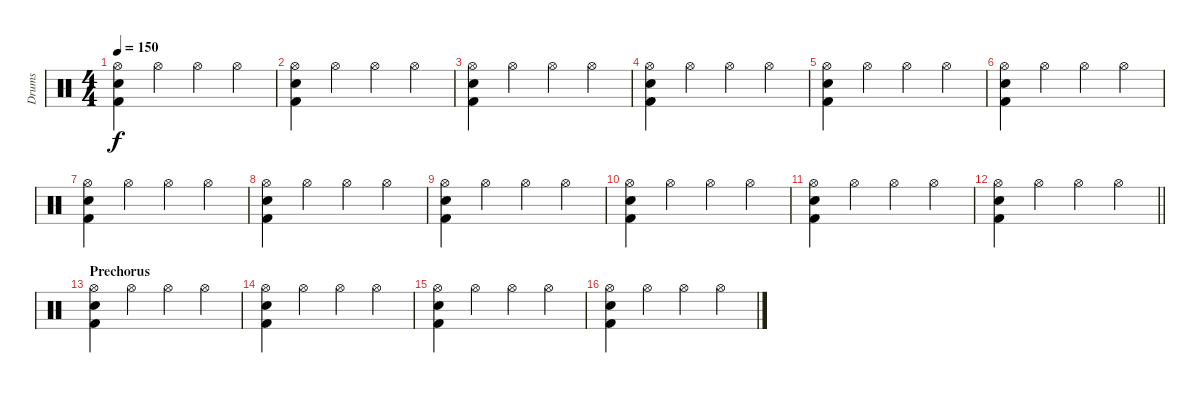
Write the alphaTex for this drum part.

\track ("Drums" "Drums") {instrument percussion}
\staff {score}
\articulation defaults
\ts (4 4)
\tempo 150
\clef neutral
\ks c
("Hi-Hat (open)" "Electric Snare (hit)" "Kick (hit) 2").4{dy f} "Hi-Hat (open)".4 "Hi-Hat (open)".4 "Hi-Hat (open)".4 |
("Hi-Hat (open)" "Electric Snare (hit)" "Kick (hit) 2").4 "Hi-Hat (open)".4 "Hi-Hat (open)".4 "Hi-Hat (open)".4 |
("Hi-Hat (open)" "Electric Snare (hit)" "Kick (hit) 2").4 "Hi-Hat (open)".4 "Hi-Hat (open)".4 "Hi-Hat (open)".4 |
("Hi-Hat (open)" "Electric Snare (hit)" "Kick (hit) 2").4 "Hi-Hat (open)".4 "Hi-Hat (open)".4 "Hi-Hat (open)".4 |
("Hi-Hat (open)" "Electric Snare (hit)" "Kick (hit) 2").4 "Hi-Hat (open)".4 "Hi-Hat (open)".4 "Hi-Hat (open)".4 |
("Hi-Hat (open)" "Electric Snare (hit)" "Kick (hit) 2").4 "Hi-Hat (open)".4 "Hi-Hat (open)".4 "Hi-Hat (open)".4 |
("Hi-Hat (open)" "Electric Snare (hit)" "Kick (hit) 2").4 "Hi-Hat (open)".4 "Hi-Hat (open)".4 "Hi-Hat (open)".4 |
("Hi-Hat (open)" "Electric Snare (hit)" "Kick (hit) 2").4 "Hi-Hat (open)".4 "Hi-Hat (open)".4 "Hi-Hat (open)".4 |
("Hi-Hat (open)" "Electric Snare (hit)" "Kick (hit) 2").4 "Hi-Hat (open)".4 "Hi-Hat (open)".4 "Hi-Hat (open)".4 |
("Hi-Hat (open)" "Electric Snare (hit)" "Kick (hit) 2").4 "Hi-Hat (open)".4 "Hi-Hat (open)".4 "Hi-Hat (open)".4 |
("Hi-Hat (open)" "Electric Snare (hit)" "Kick (hit) 2").4 "Hi-Hat (open)".4 "Hi-Hat (open)".4 "Hi-Hat (open)".4 |
\barLineRight lightlight
("Hi-Hat (open)" "Electric Snare (hit)" "Kick (hit) 2").4 "Hi-Hat (open)".4 "Hi-Hat (open)".4 "Hi-Hat (open)".4 |
\section ("" "Prechorus")
("Hi-Hat (open)" "Electric Snare (hit)" "Kick (hit) 2").4 "Hi-Hat (open)".4 "Hi-Hat (open)".4 "Hi-Hat (open)".4 |
("Hi-Hat (open)" "Electric Snare (hit)" "Kick (hit) 2").4 "Hi-Hat (open)".4 "Hi-Hat (open)".4 "Hi-Hat (open)".4 |
("Hi-Hat (open)" "Electric Snare (hit)" "Kick (hit) 2").4 "Hi-Hat (open)".4 "Hi-Hat (open)".4 "Hi-Hat (open)".4 |
("Hi-Hat (open)" "Electric Snare (hit)" "Kick (hit) 2").4 "Hi-Hat (open)".4 "Hi-Hat (open)".4 "Hi-Hat (open)".4
